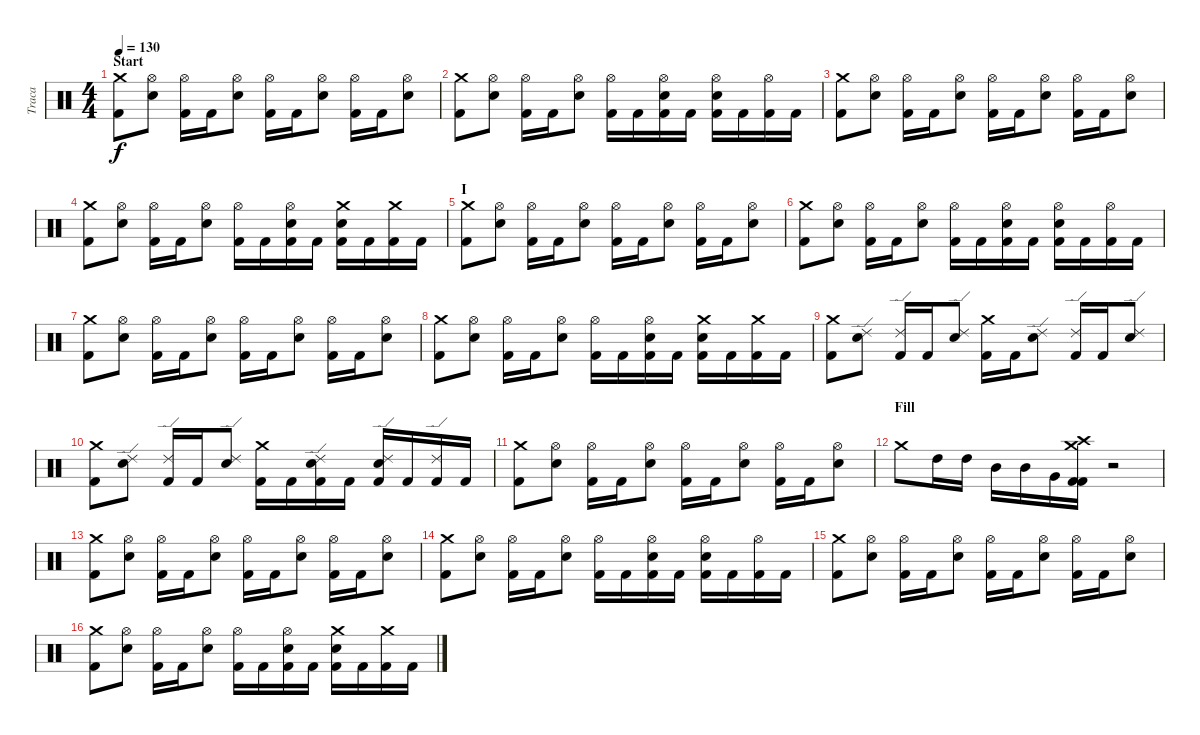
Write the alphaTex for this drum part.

\track ("Traca" "Traca") {instrument percussion}
\staff {score}
\articulation defaults
\ts (4 4)
\section ("" "Start")
\tempo 130
\clef neutral
\ks c
("Crash medium (hit)" "Kick (hit) 2").8{dy f} ("Hi-Hat (open)" "Snare (hit) 2").8 ("Hi-Hat (open)" "Kick (hit) 2").16 "Kick (hit) 2".16 ("Hi-Hat (open)" "Snare (hit) 2").8 ("Hi-Hat (open)" "Kick (hit) 2").16 "Kick (hit) 2".16 ("Hi-Hat (open)" "Snare (hit) 2").8 ("Hi-Hat (open)" "Kick (hit) 2").16 "Kick (hit) 2".16 ("Hi-Hat (open)" "Snare (hit) 2").8 |
("Crash medium (hit)" "Kick (hit) 2").8 ("Hi-Hat (open)" "Snare (hit) 2").8 ("Hi-Hat (open)" "Kick (hit) 2").16 "Kick (hit) 2".16 ("Hi-Hat (open)" "Snare (hit) 2").8 ("Hi-Hat (open)" "Kick (hit) 2").16 "Kick (hit) 2".16 ("Hi-Hat (open)" "Snare (hit) 2" "Kick (hit) 2").16 "Kick (hit) 2".16 ("Hi-Hat (open)" "Snare (hit) 2" "Kick (hit) 2").16 "Kick (hit) 2".16 ("Hi-Hat (open)" "Kick (hit) 2").16 "Kick (hit) 2".16 |
("Crash medium (hit)" "Kick (hit) 2").8 ("Hi-Hat (open)" "Snare (hit) 2").8 ("Hi-Hat (open)" "Kick (hit) 2").16 "Kick (hit) 2".16 ("Hi-Hat (open)" "Snare (hit) 2").8 ("Hi-Hat (open)" "Kick (hit) 2").16 "Kick (hit) 2".16 ("Hi-Hat (open)" "Snare (hit) 2").8 ("Hi-Hat (open)" "Kick (hit) 2").16 "Kick (hit) 2".16 ("Hi-Hat (open)" "Snare (hit) 2").8 |
("Crash medium (hit)" "Kick (hit) 2").8 ("Hi-Hat (open)" "Snare (hit) 2").8 ("Hi-Hat (open)" "Kick (hit) 2").16 "Kick (hit) 2".16 ("Hi-Hat (open)" "Snare (hit) 2").8 ("Hi-Hat (open)" "Kick (hit) 2").16 "Kick (hit) 2".16 ("Hi-Hat (open)" "Snare (hit) 2" "Kick (hit) 2").16 "Kick (hit) 2".16 ("Crash medium (hit)" "Snare (hit) 2" "Kick (hit) 2").16 "Kick (hit) 2".16 ("Crash medium (hit)" "Kick (hit) 2").16 "Kick (hit) 2".16 |
\section ("" "I")
("Crash medium (hit)" "Kick (hit) 2").8 ("Hi-Hat (open)" "Snare (hit) 2").8 ("Hi-Hat (open)" "Kick (hit) 2").16 "Kick (hit) 2".16 ("Hi-Hat (open)" "Snare (hit) 2").8 ("Hi-Hat (open)" "Kick (hit) 2").16 "Kick (hit) 2".16 ("Hi-Hat (open)" "Snare (hit) 2").8 ("Hi-Hat (open)" "Kick (hit) 2").16 "Kick (hit) 2".16 ("Hi-Hat (open)" "Snare (hit) 2").8 |
("Crash medium (hit)" "Kick (hit) 2").8 ("Hi-Hat (open)" "Snare (hit) 2").8 ("Hi-Hat (open)" "Kick (hit) 2").16 "Kick (hit) 2".16 ("Hi-Hat (open)" "Snare (hit) 2").8 ("Hi-Hat (open)" "Kick (hit) 2").16 "Kick (hit) 2".16 ("Hi-Hat (open)" "Snare (hit) 2" "Kick (hit) 2").16 "Kick (hit) 2".16 ("Hi-Hat (open)" "Snare (hit) 2" "Kick (hit) 2").16 "Kick (hit) 2".16 ("Hi-Hat (open)" "Kick (hit) 2").16 "Kick (hit) 2".16 |
("Crash medium (hit)" "Kick (hit) 2").8 ("Hi-Hat (open)" "Snare (hit) 2").8 ("Hi-Hat (open)" "Kick (hit) 2").16 "Kick (hit) 2".16 ("Hi-Hat (open)" "Snare (hit) 2").8 ("Hi-Hat (open)" "Kick (hit) 2").16 "Kick (hit) 2".16 ("Hi-Hat (open)" "Snare (hit) 2").8 ("Hi-Hat (open)" "Kick (hit) 2").16 "Kick (hit) 2".16 ("Hi-Hat (open)" "Snare (hit) 2").8 |
("Crash medium (hit)" "Kick (hit) 2").8 ("Hi-Hat (open)" "Snare (hit) 2").8 ("Hi-Hat (open)" "Kick (hit) 2").16 "Kick (hit) 2".16 ("Hi-Hat (open)" "Snare (hit) 2").8 ("Hi-Hat (open)" "Kick (hit) 2").16 "Kick (hit) 2".16 ("Hi-Hat (open)" "Snare (hit) 2" "Kick (hit) 2").16 "Kick (hit) 2".16 ("Crash medium (hit)" "Snare (hit) 2" "Kick (hit) 2").16 "Kick (hit) 2".16 ("Crash medium (hit)" "Kick (hit) 2").16 "Kick (hit) 2".16 |
("Crash medium (hit)" "Kick (hit) 2").8 ("Ride (edge) 2" "Snare (hit) 2").8 ("Ride (edge) 2" "Kick (hit) 2").16 "Kick (hit) 2".16 ("Ride (edge) 2" "Snare (hit) 2").8 ("Crash medium (hit)" "Kick (hit) 2").16 "Kick (hit) 2".16 ("Ride (edge) 2" "Snare (hit) 2").8 ("Ride (edge) 2" "Kick (hit) 2").16 "Kick (hit) 2".16 ("Ride (edge) 2" "Snare (hit) 2").8 |
("Crash medium (hit)" "Kick (hit) 2").8 ("Ride (edge) 2" "Snare (hit) 2").8 ("Ride (edge) 2" "Kick (hit) 2").16 "Kick (hit) 2".16 ("Ride (edge) 2" "Snare (hit) 2").8 ("Crash medium (hit)" "Kick (hit) 2").16 "Kick (hit) 2".16 ("Ride (edge) 2" "Snare (hit) 2" "Kick (hit) 2").16 "Kick (hit) 2".16 ("Ride (edge) 2" "Snare (hit) 2" "Kick (hit) 2").16 "Kick (hit) 2".16 ("Ride (edge) 2" "Kick (hit) 2").16 "Kick (hit) 2".16 |
("Crash medium (hit)" "Kick (hit) 2").8 ("Hi-Hat (open)" "Snare (hit) 2").8 ("Hi-Hat (open)" "Kick (hit) 2").16 "Kick (hit) 2".16 ("Hi-Hat (open)" "Snare (hit) 2").8 ("Hi-Hat (open)" "Kick (hit) 2").16 "Kick (hit) 2".16 ("Hi-Hat (open)" "Snare (hit) 2").8 ("Hi-Hat (open)" "Kick (hit) 2").16 "Kick (hit) 2".16 ("Hi-Hat (open)" "Snare (hit) 2").8 |
\section ("" "Fill")
"Crash medium (hit)".8 "High Tom (hit)".16 "High Tom (hit)".16 "Mid Tom (hit)".16 "Mid Tom (hit)".16 "Very Low Tom (hit)".16 ("Crash medium (hit)" "Crash high (hit)" "Kick (hit) 2" "Kick (hit) 2").16 r.2 |
("Crash medium (hit)" "Kick (hit) 2").8 ("Hi-Hat (open)" "Snare (hit) 2").8 ("Hi-Hat (open)" "Kick (hit) 2").16 "Kick (hit) 2".16 ("Hi-Hat (open)" "Snare (hit) 2").8 ("Hi-Hat (open)" "Kick (hit) 2").16 "Kick (hit) 2".16 ("Hi-Hat (open)" "Snare (hit) 2").8 ("Hi-Hat (open)" "Kick (hit) 2").16 "Kick (hit) 2".16 ("Hi-Hat (open)" "Snare (hit) 2").8 |
("Crash medium (hit)" "Kick (hit) 2").8 ("Hi-Hat (open)" "Snare (hit) 2").8 ("Hi-Hat (open)" "Kick (hit) 2").16 "Kick (hit) 2".16 ("Hi-Hat (open)" "Snare (hit) 2").8 ("Hi-Hat (open)" "Kick (hit) 2").16 "Kick (hit) 2".16 ("Hi-Hat (open)" "Snare (hit) 2" "Kick (hit) 2").16 "Kick (hit) 2".16 ("Hi-Hat (open)" "Snare (hit) 2" "Kick (hit) 2").16 "Kick (hit) 2".16 ("Hi-Hat (open)" "Kick (hit) 2").16 "Kick (hit) 2".16 |
("Crash medium (hit)" "Kick (hit) 2").8 ("Hi-Hat (open)" "Snare (hit) 2").8 ("Hi-Hat (open)" "Kick (hit) 2").16 "Kick (hit) 2".16 ("Hi-Hat (open)" "Snare (hit) 2").8 ("Hi-Hat (open)" "Kick (hit) 2").16 "Kick (hit) 2".16 ("Hi-Hat (open)" "Snare (hit) 2").8 ("Hi-Hat (open)" "Kick (hit) 2").16 "Kick (hit) 2".16 ("Hi-Hat (open)" "Snare (hit) 2").8 |
("Crash medium (hit)" "Kick (hit) 2").8 ("Hi-Hat (open)" "Snare (hit) 2").8 ("Hi-Hat (open)" "Kick (hit) 2").16 "Kick (hit) 2".16 ("Hi-Hat (open)" "Snare (hit) 2").8 ("Hi-Hat (open)" "Kick (hit) 2").16 "Kick (hit) 2".16 ("Hi-Hat (open)" "Snare (hit) 2" "Kick (hit) 2").16 "Kick (hit) 2".16 ("Crash medium (hit)" "Snare (hit) 2" "Kick (hit) 2").16 "Kick (hit) 2".16 ("Crash medium (hit)" "Kick (hit) 2").16 "Kick (hit) 2".16
